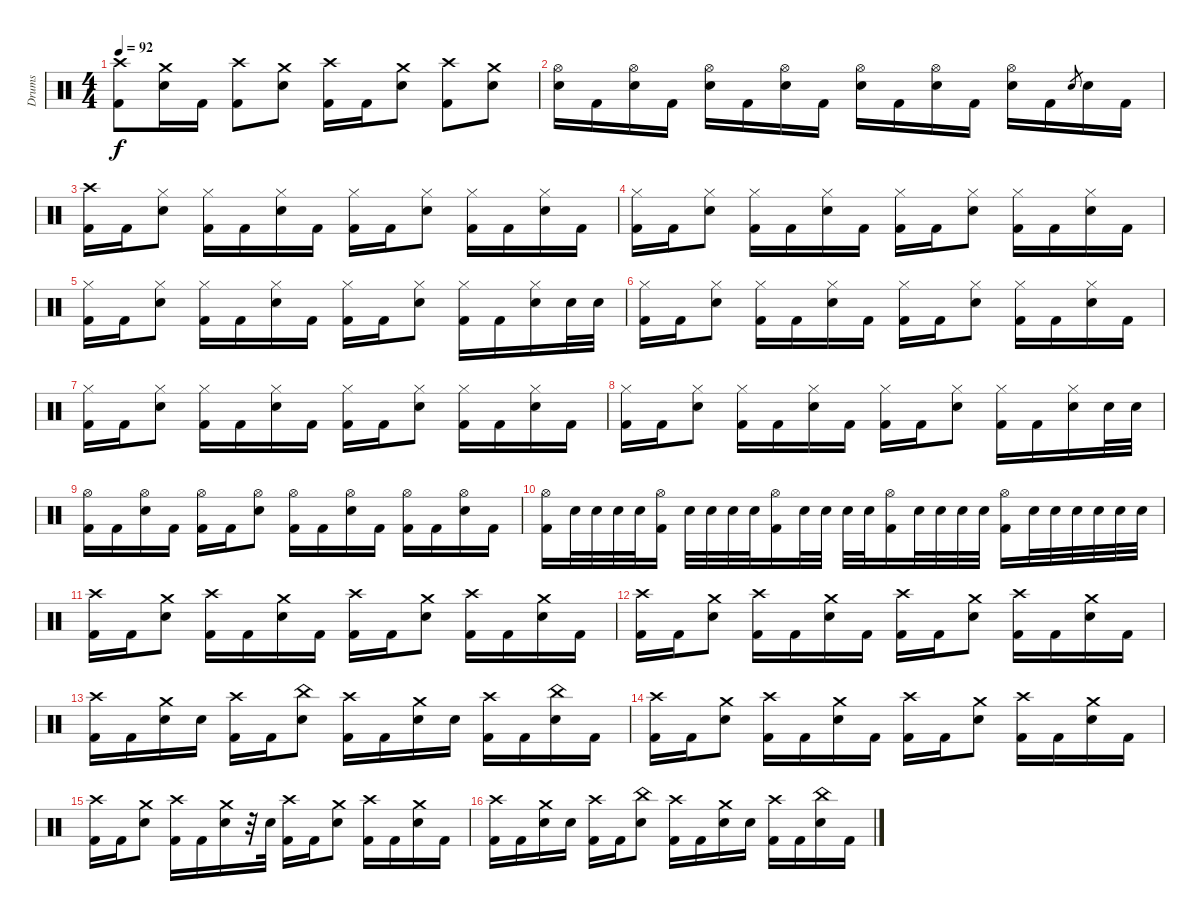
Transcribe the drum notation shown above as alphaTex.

\track ("Drums" "Drums") {instrument percussion}
\staff {score}
\articulation defaults
\ts (4 4)
\tempo 92
\clef neutral
\ks c
("Crash high (hit)" "Kick (hit) 2").8{dy f} ("Crash medium (hit)" "Snare (hit) 2").16 "Kick (hit) 2".16 ("Crash high (hit)" "Kick (hit) 2").8 ("Crash medium (hit)" "Snare (hit) 2").8 ("Crash high (hit)" "Kick (hit) 2").16 "Kick (hit) 2".16 ("Crash medium (hit)" "Snare (hit) 2").8 ("Crash high (hit)" "Kick (hit) 2").8 ("Crash medium (hit)" "Snare (hit) 2").8 |
("Hi-Hat (open)" "Snare (hit) 2").16 "Kick (hit) 2".16 ("Hi-Hat (open)" "Snare (hit) 2").16 "Kick (hit) 2".16 ("Hi-Hat (open)" "Snare (hit) 2").16 "Kick (hit) 2".16 ("Hi-Hat (open)" "Snare (hit) 2").16 "Kick (hit) 2".16 ("Hi-Hat (open)" "Snare (hit) 2").16 "Kick (hit) 2".16 ("Hi-Hat (open)" "Snare (hit) 2").16 "Kick (hit) 2".16 ("Hi-Hat (open)" "Snare (hit) 2").16 "Kick (hit) 2".16 "Snare (hit) 2".8{gr} "Snare (hit) 2".16 "Kick (hit) 2".16 |
("Crash high (hit)" "Kick (hit) 2").16 "Kick (hit) 2".16 ("Hi-Hat (closed)" "Snare (hit) 2").8 ("Hi-Hat (closed)" "Kick (hit) 2").16 "Kick (hit) 2".16 ("Hi-Hat (closed)" "Snare (hit) 2").16 "Kick (hit) 2".16 ("Hi-Hat (closed)" "Kick (hit) 2").16 "Kick (hit) 2".16 ("Hi-Hat (closed)" "Snare (hit) 2").8 ("Hi-Hat (closed)" "Kick (hit) 2").16 "Kick (hit) 2".16 ("Hi-Hat (closed)" "Snare (hit) 2").16 "Kick (hit) 2".16 |
("Hi-Hat (closed)" "Kick (hit) 2").16 "Kick (hit) 2".16 ("Hi-Hat (closed)" "Snare (hit) 2").8 ("Hi-Hat (closed)" "Kick (hit) 2").16 "Kick (hit) 2".16 ("Hi-Hat (closed)" "Snare (hit) 2").16 "Kick (hit) 2".16 ("Hi-Hat (closed)" "Kick (hit) 2").16 "Kick (hit) 2".16 ("Hi-Hat (closed)" "Snare (hit) 2").8 ("Hi-Hat (closed)" "Kick (hit) 2").16 "Kick (hit) 2".16 ("Hi-Hat (closed)" "Snare (hit) 2").16 "Kick (hit) 2".16 |
("Hi-Hat (closed)" "Kick (hit) 2").16 "Kick (hit) 2".16 ("Hi-Hat (closed)" "Snare (hit) 2").8 ("Hi-Hat (closed)" "Kick (hit) 2").16 "Kick (hit) 2".16 ("Hi-Hat (closed)" "Snare (hit) 2").16 "Kick (hit) 2".16 ("Hi-Hat (closed)" "Kick (hit) 2").16 "Kick (hit) 2".16 ("Hi-Hat (closed)" "Snare (hit) 2").8 ("Hi-Hat (closed)" "Kick (hit) 2").16 "Kick (hit) 2".16 ("Hi-Hat (closed)" "Snare (hit) 2").16 "Snare (hit) 2".32 "Snare (hit) 2".32 |
("Hi-Hat (closed)" "Kick (hit) 2").16 "Kick (hit) 2".16 ("Hi-Hat (closed)" "Snare (hit) 2").8 ("Hi-Hat (closed)" "Kick (hit) 2").16 "Kick (hit) 2".16 ("Hi-Hat (closed)" "Snare (hit) 2").16 "Kick (hit) 2".16 ("Hi-Hat (closed)" "Kick (hit) 2").16 "Kick (hit) 2".16 ("Hi-Hat (closed)" "Snare (hit) 2").8 ("Hi-Hat (closed)" "Kick (hit) 2").16 "Kick (hit) 2".16 ("Hi-Hat (closed)" "Snare (hit) 2").16 "Kick (hit) 2".16 |
("Hi-Hat (closed)" "Kick (hit) 2").16 "Kick (hit) 2".16 ("Hi-Hat (closed)" "Snare (hit) 2").8 ("Hi-Hat (closed)" "Kick (hit) 2").16 "Kick (hit) 2".16 ("Hi-Hat (closed)" "Snare (hit) 2").16 "Kick (hit) 2".16 ("Hi-Hat (closed)" "Kick (hit) 2").16 "Kick (hit) 2".16 ("Hi-Hat (closed)" "Snare (hit) 2").8 ("Hi-Hat (closed)" "Kick (hit) 2").16 "Kick (hit) 2".16 ("Hi-Hat (closed)" "Snare (hit) 2").16 "Kick (hit) 2".16 |
("Hi-Hat (closed)" "Kick (hit) 2").16 "Kick (hit) 2".16 ("Hi-Hat (closed)" "Snare (hit) 2").8 ("Hi-Hat (closed)" "Kick (hit) 2").16 "Kick (hit) 2".16 ("Hi-Hat (closed)" "Snare (hit) 2").16 "Kick (hit) 2".16 ("Hi-Hat (closed)" "Kick (hit) 2").16 "Kick (hit) 2".16 ("Hi-Hat (closed)" "Snare (hit) 2").8 ("Hi-Hat (closed)" "Kick (hit) 2").16 "Kick (hit) 2".16 ("Hi-Hat (closed)" "Snare (hit) 2").16 "Snare (hit) 2".32 "Snare (hit) 2".32 |
("Hi-Hat (open)" "Kick (hit) 2").16 "Kick (hit) 2".16 ("Hi-Hat (open)" "Snare (hit) 2").16 "Kick (hit) 2".16 ("Hi-Hat (open)" "Kick (hit) 2").16 "Kick (hit) 2".16 ("Hi-Hat (open)" "Snare (hit) 2").8 ("Hi-Hat (open)" "Kick (hit) 2").16 "Kick (hit) 2".16 ("Hi-Hat (open)" "Snare (hit) 2").16 "Kick (hit) 2".16 ("Hi-Hat (open)" "Kick (hit) 2").16 "Kick (hit) 2".16 ("Hi-Hat (open)" "Snare (hit) 2").16 "Kick (hit) 2".16 |
("Hi-Hat (open)" "Kick (hit) 2").16 "Snare (hit) 2".32 "Snare (hit) 2".32 "Snare (hit) 2".32 "Snare (hit) 2".32 ("Hi-Hat (open)" "Kick (hit) 2").16 "Snare (hit) 2".32 "Snare (hit) 2".32 "Snare (hit) 2".32 "Snare (hit) 2".32 ("Hi-Hat (open)" "Kick (hit) 2").16 "Snare (hit) 2".32 "Snare (hit) 2".32 "Snare (hit) 2".32 "Snare (hit) 2".32 ("Hi-Hat (open)" "Kick (hit) 2").16 "Snare (hit) 2".32 "Snare (hit) 2".32 "Snare (hit) 2".32 "Snare (hit) 2".32 ("Hi-Hat (open)" "Kick (hit) 2").16 "Snare (hit) 2".32 "Snare (hit) 2".32 "Snare (hit) 2".32 "Snare (hit) 2".32 "Snare (hit) 2".32 "Snare (hit) 2".32 |
("Crash high (hit)" "Kick (hit) 2").16 "Kick (hit) 2".16 ("Crash medium (hit)" "Snare (hit) 2").8 ("Crash high (hit)" "Kick (hit) 2").16 "Kick (hit) 2".16 ("Crash medium (hit)" "Snare (hit) 2").16 "Kick (hit) 2".16 ("Crash high (hit)" "Kick (hit) 2").16 "Kick (hit) 2".16 ("Crash medium (hit)" "Snare (hit) 2").8 ("Crash high (hit)" "Kick (hit) 2").16 "Kick (hit) 2".16 ("Crash medium (hit)" "Snare (hit) 2").16 "Kick (hit) 2".16 |
("Crash high (hit)" "Kick (hit) 2").16 "Kick (hit) 2".16 ("Crash medium (hit)" "Snare (hit) 2").8 ("Crash high (hit)" "Kick (hit) 2").16 "Kick (hit) 2".16 ("Crash medium (hit)" "Snare (hit) 2").16 "Kick (hit) 2".16 ("Crash high (hit)" "Kick (hit) 2").16 "Kick (hit) 2".16 ("Crash medium (hit)" "Snare (hit) 2").8 ("Crash high (hit)" "Kick (hit) 2").16 "Kick (hit) 2".16 ("Crash medium (hit)" "Snare (hit) 2").16 "Kick (hit) 2".16 |
("Crash high (hit)" "Kick (hit) 2").16 "Kick (hit) 2".16 ("Crash medium (hit)" "Snare (hit) 2").16 "Snare (hit) 2".16 ("Crash high (hit)" "Kick (hit) 2").16 "Kick (hit) 2".16 ("China (hit)" "Snare (hit) 2").8 ("Crash high (hit)" "Kick (hit) 2").16 "Kick (hit) 2".16 ("Crash medium (hit)" "Snare (hit) 2").16 "Snare (hit) 2".16 ("Crash high (hit)" "Kick (hit) 2").16 "Kick (hit) 2".16 ("China (hit)" "Snare (hit) 2").16 "Kick (hit) 2".16 |
("Crash high (hit)" "Kick (hit) 2").16 "Kick (hit) 2".16 ("Crash medium (hit)" "Snare (hit) 2").8 ("Crash high (hit)" "Kick (hit) 2").16 "Kick (hit) 2".16 ("Crash medium (hit)" "Snare (hit) 2").16 "Kick (hit) 2".16 ("Crash high (hit)" "Kick (hit) 2").16 "Kick (hit) 2".16 ("Crash medium (hit)" "Snare (hit) 2").8 ("Crash high (hit)" "Kick (hit) 2").16 "Kick (hit) 2".16 ("Crash medium (hit)" "Snare (hit) 2").16 "Kick (hit) 2".16 |
("Crash high (hit)" "Kick (hit) 2").16 "Kick (hit) 2".16 ("Crash medium (hit)" "Snare (hit) 2").8 ("Crash high (hit)" "Kick (hit) 2").16 "Kick (hit) 2".16 ("Crash medium (hit)" "Snare (hit) 2").16 r.32 "Snare (hit) 2".32 ("Crash high (hit)" "Kick (hit) 2").16 "Kick (hit) 2".16 ("Crash medium (hit)" "Snare (hit) 2").8 ("Crash high (hit)" "Kick (hit) 2").16 "Kick (hit) 2".16 ("Crash medium (hit)" "Snare (hit) 2").16 "Kick (hit) 2".16 |
("Crash high (hit)" "Kick (hit) 2").16 "Kick (hit) 2".16 ("Crash medium (hit)" "Snare (hit) 2").16 "Snare (hit) 2".16 ("Crash high (hit)" "Kick (hit) 2").16 "Kick (hit) 2".16 ("China (hit)" "Snare (hit) 2").8 ("Crash high (hit)" "Kick (hit) 2").16 "Kick (hit) 2".16 ("Crash medium (hit)" "Snare (hit) 2").16 "Snare (hit) 2".16 ("Crash high (hit)" "Kick (hit) 2").16 "Kick (hit) 2".16 ("China (hit)" "Snare (hit) 2").16 "Kick (hit) 2".16
